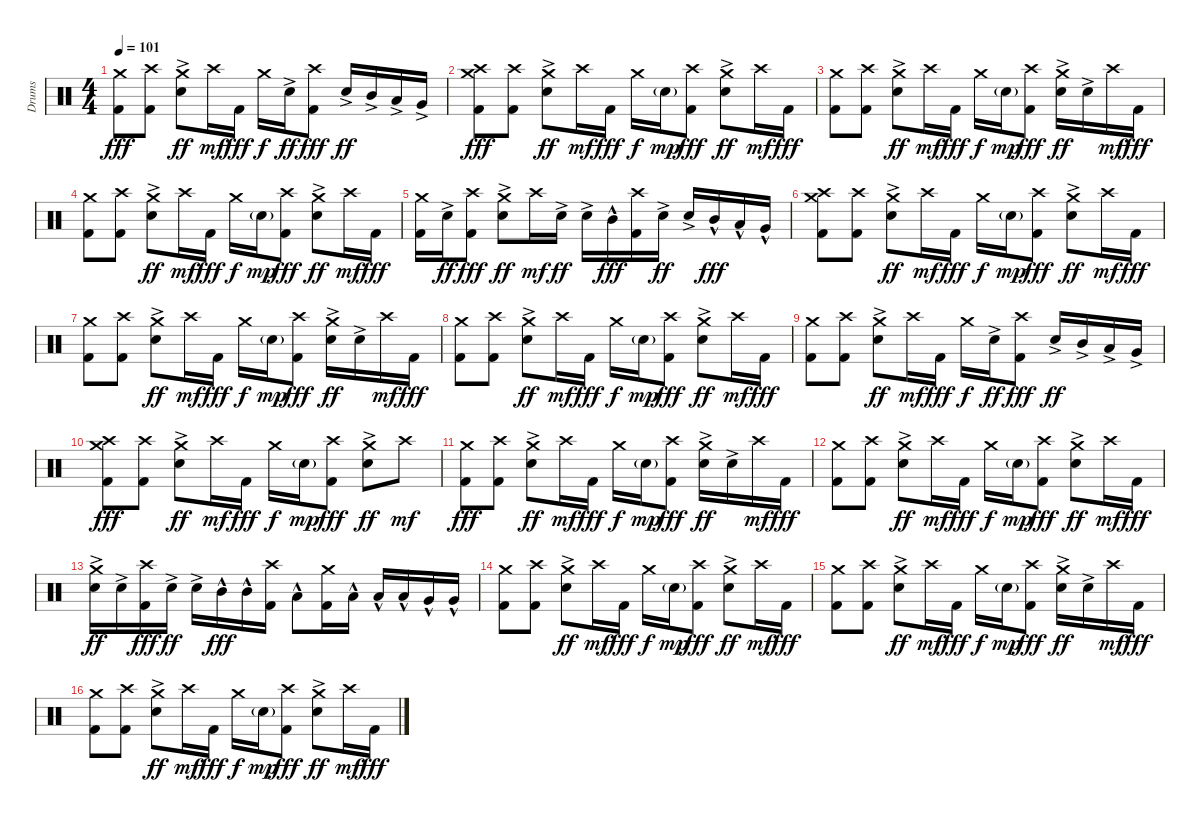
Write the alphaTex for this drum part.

\track ("Drums" "Drums") {instrument percussion}
\staff {score}
\articulation defaults
\ts (4 4)
\tempo 101
\clef neutral
\ks c
("Crash medium (hit)" "Kick (hit) 2").8{dy fff} ("Crash high (hit)" "Kick (hit) 2").8 ("Crash medium (hit)" "Electric Snare (hit)"{ac}).8{dy ff} "Crash high (hit)".16{dy mf} "Kick (hit) 2".16{dy fff} "Crash medium (hit)".16{dy f} "Electric Snare (hit)"{ac}.16{dy ff} ("Crash high (hit)" "Kick (hit) 2").8{dy fff} "Electric Snare (hit)"{ac}.16{dy ff} "Mid Tom (hit)"{ac}.16 "Low Tom (hit)"{ac}.16 "Very Low Tom (hit)"{ac}.16 |
("Crash medium (hit)" "Crash high (hit)" "Kick (hit) 2").8{dy fff} ("Crash high (hit)" "Kick (hit) 2").8 ("Crash medium (hit)" "Electric Snare (hit)"{ac}).8{dy ff} "Crash high (hit)".16{dy mf} "Kick (hit) 2".16{dy fff} "Crash medium (hit)".16{dy f} "Snare (hit) 2"{g}.16{dy mp} ("Crash high (hit)" "Kick (hit) 2").8{dy fff} ("Crash medium (hit)" "Electric Snare (hit)"{ac}).8{dy ff} "Crash high (hit)".16{dy mf} "Kick (hit) 2".16{dy fff} |
("Crash medium (hit)" "Kick (hit) 2").8 ("Crash high (hit)" "Kick (hit) 2").8 ("Crash medium (hit)" "Electric Snare (hit)"{ac}).8{dy ff} "Crash high (hit)".16{dy mf} "Kick (hit) 2".16{dy fff} "Crash medium (hit)".16{dy f} "Snare (hit) 2"{g}.16{dy mp} ("Crash high (hit)" "Kick (hit) 2").8{dy fff} ("Crash medium (hit)" "Electric Snare (hit)"{ac}).16{dy ff} "Electric Snare (hit)"{ac}.16 "Crash high (hit)".16{dy mf} "Kick (hit) 2".16{dy fff} |
("Crash medium (hit)" "Kick (hit) 2").8 ("Crash high (hit)" "Kick (hit) 2").8 ("Crash medium (hit)" "Electric Snare (hit)"{ac}).8{dy ff} "Crash high (hit)".16{dy mf} "Kick (hit) 2".16{dy fff} "Crash medium (hit)".16{dy f} "Snare (hit) 2"{g}.16{dy mp} ("Crash high (hit)" "Kick (hit) 2").8{dy fff} ("Crash medium (hit)" "Electric Snare (hit)"{ac}).8{dy ff} "Crash high (hit)".16{dy mf} "Kick (hit) 2".16{dy fff} |
("Crash medium (hit)" "Kick (hit) 2").16 "Electric Snare (hit)"{ac}.16{dy ff} ("Crash high (hit)" "Kick (hit) 2").8{dy fff} ("Crash medium (hit)" "Electric Snare (hit)"{ac}).8{dy ff} "Crash high (hit)".16{dy mf} "Electric Snare (hit)"{ac}.16{dy ff} "Electric Snare (hit)"{ac}.16 "Mid Tom (hit)"{hac}.16{dy fff} ("Crash high (hit)" "Kick (hit) 2").16 "Electric Snare (hit)"{ac}.16{dy ff} "Electric Snare (hit)"{ac}.16 "Mid Tom (hit)"{hac}.16{dy fff} "Low Tom (hit)"{hac}.16 "Very Low Tom (hit)"{hac}.16 |
("Crash medium (hit)" "Crash high (hit)" "Kick (hit) 2").8 ("Crash high (hit)" "Kick (hit) 2").8 ("Crash medium (hit)" "Electric Snare (hit)"{ac}).8{dy ff} "Crash high (hit)".16{dy mf} "Kick (hit) 2".16{dy fff} "Crash medium (hit)".16{dy f} "Snare (hit) 2"{g}.16{dy mp} ("Crash high (hit)" "Kick (hit) 2").8{dy fff} ("Crash medium (hit)" "Electric Snare (hit)"{ac}).8{dy ff} "Crash high (hit)".16{dy mf} "Kick (hit) 2".16{dy fff} |
("Crash medium (hit)" "Kick (hit) 2").8 ("Crash high (hit)" "Kick (hit) 2").8 ("Crash medium (hit)" "Electric Snare (hit)"{ac}).8{dy ff} "Crash high (hit)".16{dy mf} "Kick (hit) 2".16{dy fff} "Crash medium (hit)".16{dy f} "Snare (hit) 2"{g}.16{dy mp} ("Crash high (hit)" "Kick (hit) 2").8{dy fff} ("Crash medium (hit)" "Electric Snare (hit)"{ac}).16{dy ff} "Electric Snare (hit)"{ac}.16 "Crash high (hit)".16{dy mf} "Kick (hit) 2".16{dy fff} |
("Crash medium (hit)" "Kick (hit) 2").8 ("Crash high (hit)" "Kick (hit) 2").8 ("Crash medium (hit)" "Electric Snare (hit)"{ac}).8{dy ff} "Crash high (hit)".16{dy mf} "Kick (hit) 2".16{dy fff} "Crash medium (hit)".16{dy f} "Snare (hit) 2"{g}.16{dy mp} ("Crash high (hit)" "Kick (hit) 2").8{dy fff} ("Crash medium (hit)" "Electric Snare (hit)"{ac}).8{dy ff} "Crash high (hit)".16{dy mf} "Kick (hit) 2".16{dy fff} |
("Crash medium (hit)" "Kick (hit) 2").8 ("Crash high (hit)" "Kick (hit) 2").8 ("Crash medium (hit)" "Electric Snare (hit)"{ac}).8{dy ff} "Crash high (hit)".16{dy mf} "Kick (hit) 2".16{dy fff} "Crash medium (hit)".16{dy f} "Electric Snare (hit)"{ac}.16{dy ff} ("Crash high (hit)" "Kick (hit) 2").8{dy fff} "Electric Snare (hit)"{ac}.16{dy ff} "Mid Tom (hit)"{ac}.16 "Low Tom (hit)"{ac}.16 "Very Low Tom (hit)"{ac}.16 |
("Crash medium (hit)" "Crash high (hit)" "Kick (hit) 2").8{dy fff} ("Crash high (hit)" "Kick (hit) 2").8 ("Crash medium (hit)" "Electric Snare (hit)"{ac}).8{dy ff} "Crash high (hit)".16{dy mf} "Kick (hit) 2".16{dy fff} "Crash medium (hit)".16{dy f} "Snare (hit) 2"{g}.16{dy mp} ("Crash high (hit)" "Kick (hit) 2").8{dy fff} ("Crash medium (hit)" "Electric Snare (hit)"{ac}).8{dy ff} "Crash high (hit)".8{dy mf} |
("Crash medium (hit)" "Kick (hit) 2").8{dy fff} ("Crash high (hit)" "Kick (hit) 2").8 ("Crash medium (hit)" "Electric Snare (hit)"{ac}).8{dy ff} "Crash high (hit)".16{dy mf} "Kick (hit) 2".16{dy fff} "Crash medium (hit)".16{dy f} "Snare (hit) 2"{g}.16{dy mp} ("Crash high (hit)" "Kick (hit) 2").8{dy fff} ("Crash medium (hit)" "Electric Snare (hit)"{ac}).16{dy ff} "Electric Snare (hit)"{ac}.16 "Crash high (hit)".16{dy mf} "Kick (hit) 2".16{dy fff} |
("Crash medium (hit)" "Kick (hit) 2").8 ("Crash high (hit)" "Kick (hit) 2").8 ("Crash medium (hit)" "Electric Snare (hit)"{ac}).8{dy ff} "Crash high (hit)".16{dy mf} "Kick (hit) 2".16{dy fff} "Crash medium (hit)".16{dy f} "Snare (hit) 2"{g}.16{dy mp} ("Crash high (hit)" "Kick (hit) 2").8{dy fff} ("Crash medium (hit)" "Electric Snare (hit)"{ac}).8{dy ff} "Crash high (hit)".16{dy mf} "Kick (hit) 2".16{dy fff} |
("Crash medium (hit)" "Electric Snare (hit)"{ac}).16{dy ff} "Electric Snare (hit)"{ac}.16 ("Crash high (hit)" "Kick (hit) 2").16{dy fff} "Electric Snare (hit)"{ac}.16{dy ff} "Electric Snare (hit)"{ac}.16 "Mid Tom (hit)"{hac}.16{dy fff} "Mid Tom (hit)"{hac}.16 ("Crash high (hit)" "Kick (hit) 2").16 "Low Tom (hit)"{hac}.8 ("Crash medium (hit)" "Kick (hit) 2").16 "Low Tom (hit)"{hac}.16 "Low Tom (hit)"{hac}.16 "Low Tom (hit)"{hac}.16 "Very Low Tom (hit)"{hac}.16 "Very Low Tom (hit)"{hac}.16 |
("Crash medium (hit)" "Kick (hit) 2").8 ("Crash high (hit)" "Kick (hit) 2").8 ("Crash medium (hit)" "Electric Snare (hit)"{ac}).8{dy ff} "Crash high (hit)".16{dy mf} "Kick (hit) 2".16{dy fff} "Crash medium (hit)".16{dy f} "Snare (hit) 2"{g}.16{dy mp} ("Crash high (hit)" "Kick (hit) 2").8{dy fff} ("Crash medium (hit)" "Electric Snare (hit)"{ac}).8{dy ff} "Crash high (hit)".16{dy mf} "Kick (hit) 2".16{dy fff} |
("Crash medium (hit)" "Kick (hit) 2").8 ("Crash high (hit)" "Kick (hit) 2").8 ("Crash medium (hit)" "Electric Snare (hit)"{ac}).8{dy ff} "Crash high (hit)".16{dy mf} "Kick (hit) 2".16{dy fff} "Crash medium (hit)".16{dy f} "Snare (hit) 2"{g}.16{dy mp} ("Crash high (hit)" "Kick (hit) 2").8{dy fff} ("Crash medium (hit)" "Electric Snare (hit)"{ac}).16{dy ff} "Electric Snare (hit)"{ac}.16 "Crash high (hit)".16{dy mf} "Kick (hit) 2".16{dy fff} |
("Crash medium (hit)" "Kick (hit) 2").8 ("Crash high (hit)" "Kick (hit) 2").8 ("Crash medium (hit)" "Electric Snare (hit)"{ac}).8{dy ff} "Crash high (hit)".16{dy mf} "Kick (hit) 2".16{dy fff} "Crash medium (hit)".16{dy f} "Snare (hit) 2"{g}.16{dy mp} ("Crash high (hit)" "Kick (hit) 2").8{dy fff} ("Crash medium (hit)" "Electric Snare (hit)"{ac}).8{dy ff} "Crash high (hit)".16{dy mf} "Kick (hit) 2".16{dy fff}
